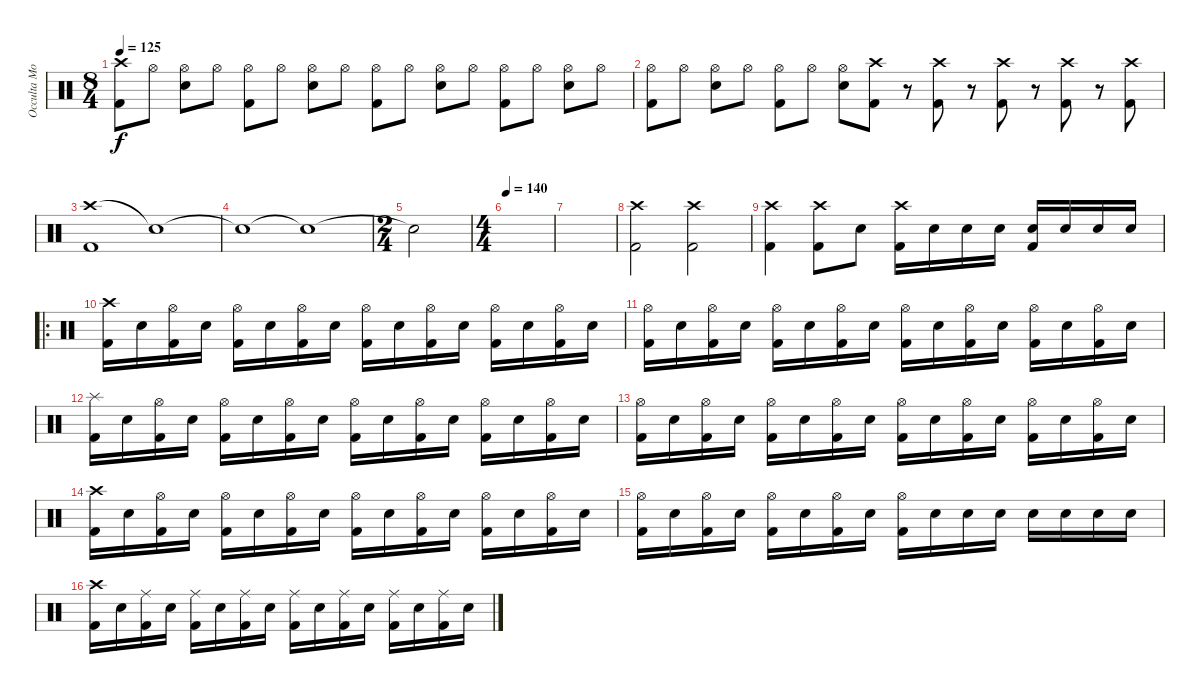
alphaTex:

\track ("Occulta Mors" "Occulta Mo") {instrument percussion}
\staff {score}
\articulation defaults
\ts (8 4)
\tempo 125
\clef neutral
\ks c
("Crash high (hit)" "Kick (hit) 2").8{dy f} "Hi-Hat (open)".8 ("Hi-Hat (open)" "Snare (hit) 2").8 "Hi-Hat (open)".8 ("Hi-Hat (open)" "Kick (hit) 2").8 "Hi-Hat (open)".8 ("Hi-Hat (open)" "Snare (hit) 2").8 "Hi-Hat (open)".8 ("Hi-Hat (open)" "Kick (hit) 2").8 "Hi-Hat (open)".8 ("Hi-Hat (open)" "Snare (hit) 2").8 "Hi-Hat (open)".8 ("Hi-Hat (open)" "Kick (hit) 2").8 "Hi-Hat (open)".8 ("Hi-Hat (open)" "Snare (hit) 2").8 "Hi-Hat (open)".8 |
("Hi-Hat (open)" "Kick (hit) 2").8 "Hi-Hat (open)".8 ("Hi-Hat (open)" "Snare (hit) 2").8 "Hi-Hat (open)".8 ("Hi-Hat (open)" "Kick (hit) 2").8 "Hi-Hat (open)".8 ("Hi-Hat (open)" "Snare (hit) 2").8 ("Crash high (hit)" "Kick (hit) 2").8 r.8 ("Crash high (hit)" "Kick (hit) 2").8 r.8 ("Crash high (hit)" "Kick (hit) 2").8 r.8 ("Crash high (hit)" "Kick (hit) 2").8 r.8 ("Crash high (hit)" "Kick (hit) 2").8 |
("Crash high (hit)" "Kick (hit) 2").1 "Snare (hit)"{t}.1 |
"Snare (hit)"{t}.1 "Snare (hit)"{t}.1 |
\ts (2 4)
"Snare (hit)"{t}.2 |
\ts (4 4)
\tempo 140
|
|
("Crash high (hit)" "Kick (hit) 2").2 ("Crash high (hit)" "Kick (hit) 2").2 |
("Crash high (hit)" "Kick (hit) 2").4 ("Crash high (hit)" "Kick (hit) 2").8 "Snare (hit) 2".8 ("Crash high (hit)" "Kick (hit) 2").16 "Snare (hit) 2".16 "Snare (hit) 2".16 "Snare (hit) 2".16 ("Snare (hit) 2" "Kick (hit) 2").16 "Snare (hit) 2".16 "Snare (hit) 2".16 "Snare (hit) 2".16 |
\ro
("Crash high (hit)" "Kick (hit) 2").16 "Snare (hit) 2".16 ("Hi-Hat (open)" "Kick (hit) 2").16 "Snare (hit) 2".16 ("Hi-Hat (open)" "Kick (hit) 2").16 "Snare (hit) 2".16 ("Hi-Hat (open)" "Kick (hit) 2").16 "Snare (hit) 2".16 ("Hi-Hat (open)" "Kick (hit) 2").16 "Snare (hit) 2".16 ("Hi-Hat (open)" "Kick (hit) 2").16 "Snare (hit) 2".16 ("Hi-Hat (open)" "Kick (hit) 2").16 "Snare (hit) 2".16 ("Hi-Hat (open)" "Kick (hit) 2").16 "Snare (hit) 2".16 |
("Hi-Hat (open)" "Kick (hit) 2").16 "Snare (hit) 2".16 ("Hi-Hat (open)" "Kick (hit) 2").16 "Snare (hit) 2".16 ("Hi-Hat (open)" "Kick (hit) 2").16 "Snare (hit) 2".16 ("Hi-Hat (open)" "Kick (hit) 2").16 "Snare (hit) 2".16 ("Hi-Hat (open)" "Kick (hit) 2").16 "Snare (hit) 2".16 ("Hi-Hat (open)" "Kick (hit) 2").16 "Snare (hit) 2".16 ("Hi-Hat (open)" "Kick (hit) 2").16 "Snare (hit) 2".16 ("Hi-Hat (open)" "Kick (hit) 2").16 "Snare (hit) 2".16 |
("Splash (hit)" "Kick (hit) 2").16 "Snare (hit) 2".16 ("Hi-Hat (open)" "Kick (hit) 2").16 "Snare (hit) 2".16 ("Hi-Hat (open)" "Kick (hit) 2").16 "Snare (hit) 2".16 ("Hi-Hat (open)" "Kick (hit) 2").16 "Snare (hit) 2".16 ("Hi-Hat (open)" "Kick (hit) 2").16 "Snare (hit) 2".16 ("Hi-Hat (open)" "Kick (hit) 2").16 "Snare (hit) 2".16 ("Hi-Hat (open)" "Kick (hit) 2").16 "Snare (hit) 2".16 ("Hi-Hat (open)" "Kick (hit) 2").16 "Snare (hit) 2".16 |
("Hi-Hat (open)" "Kick (hit) 2").16 "Snare (hit) 2".16 ("Hi-Hat (open)" "Kick (hit) 2").16 "Snare (hit) 2".16 ("Hi-Hat (open)" "Kick (hit) 2").16 "Snare (hit) 2".16 ("Hi-Hat (open)" "Kick (hit) 2").16 "Snare (hit) 2".16 ("Hi-Hat (open)" "Kick (hit) 2").16 "Snare (hit) 2".16 ("Hi-Hat (open)" "Kick (hit) 2").16 "Snare (hit) 2".16 ("Hi-Hat (open)" "Kick (hit) 2").16 "Snare (hit) 2".16 ("Hi-Hat (open)" "Kick (hit) 2").16 "Snare (hit) 2".16 |
("Crash high (hit)" "Kick (hit) 2").16 "Snare (hit) 2".16 ("Hi-Hat (open)" "Kick (hit) 2").16 "Snare (hit) 2".16 ("Hi-Hat (open)" "Kick (hit) 2").16 "Snare (hit) 2".16 ("Hi-Hat (open)" "Kick (hit) 2").16 "Snare (hit) 2".16 ("Hi-Hat (open)" "Kick (hit) 2").16 "Snare (hit) 2".16 ("Hi-Hat (open)" "Kick (hit) 2").16 "Snare (hit) 2".16 ("Hi-Hat (open)" "Kick (hit) 2").16 "Snare (hit) 2".16 ("Hi-Hat (open)" "Kick (hit) 2").16 "Snare (hit) 2".16 |
("Hi-Hat (open)" "Kick (hit) 2").16 "Snare (hit) 2".16 ("Hi-Hat (open)" "Kick (hit) 2").16 "Snare (hit) 2".16 ("Hi-Hat (open)" "Kick (hit) 2").16 "Snare (hit) 2".16 ("Hi-Hat (open)" "Kick (hit) 2").16 "Snare (hit) 2".16 ("Hi-Hat (open)" "Kick (hit) 2").16 "Snare (hit) 2".16 "Snare (hit) 2".16 "Snare (hit) 2".16 "Snare (hit) 2".16 "Snare (hit) 2".16 "Snare (hit) 2".16 "Snare (hit) 2".16 |
("Crash high (hit)" "Kick (hit) 2").16 "Snare (hit) 2".16 ("Ride (middle)" "Kick (hit) 2").16 "Snare (hit) 2".16 ("Ride (middle)" "Kick (hit) 2").16 "Snare (hit) 2".16 ("Ride (middle)" "Kick (hit) 2").16 "Snare (hit) 2".16 ("Ride (middle)" "Kick (hit) 2").16 "Snare (hit) 2".16 ("Ride (middle)" "Kick (hit) 2").16 "Snare (hit) 2".16 ("Ride (middle)" "Kick (hit) 2").16 "Snare (hit) 2".16 ("Ride (middle)" "Kick (hit) 2").16 "Snare (hit) 2".16
